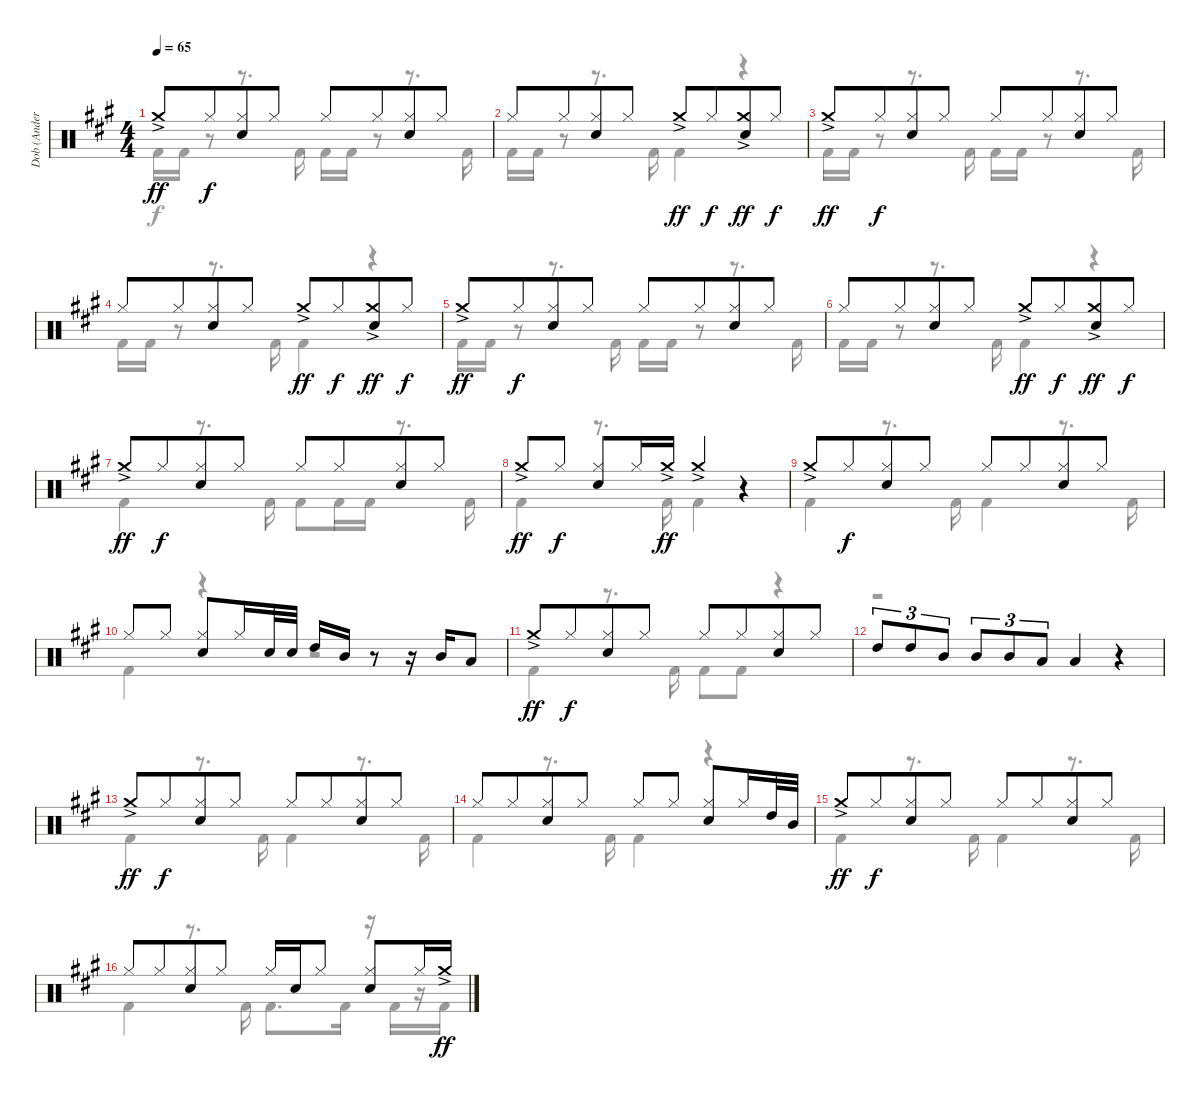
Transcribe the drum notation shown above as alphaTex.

\track ("Dob (Anders Johansson)" "Dob (Ander") {instrument percussion}
\staff {score}
\articulation defaults
\voice
\ts (4 4)
\tempo 65
\clef neutral
\ks a "Crash medium (hit)"{ac}.8{dy ff} "Hi-Hat (closed)".8{dy f beam merge}
("Hi-Hat (closed)" "Electric Snare (hit)").8 "Hi-Hat (closed)".8 "Hi-Hat (closed)".8 "Hi-Hat (closed)".8{beam merge} ("Hi-Hat (closed)" "Electric Snare (hit)").8 "Hi-Hat (closed)".8 |
"Hi-Hat (closed)".8 "Hi-Hat (closed)".8{beam merge} ("Hi-Hat (closed)" "Electric Snare (hit)").8 "Hi-Hat (closed)".8 "Crash medium (hit)"{ac}.8{dy ff} "Hi-Hat (closed)".8{dy f beam merge} ("Crash medium (hit)"{ac} "Electric Snare (hit)").8{dy ff} "Hi-Hat (closed)".8{dy f} |
"Crash medium (hit)"{ac}.8{dy ff} "Hi-Hat (closed)".8{dy f beam merge} ("Hi-Hat (closed)" "Electric Snare (hit)").8 "Hi-Hat (closed)".8 "Hi-Hat (closed)".8 "Hi-Hat (closed)".8{beam merge} ("Hi-Hat (closed)" "Electric Snare (hit)").8 "Hi-Hat (closed)".8 |
"Hi-Hat (closed)".8 "Hi-Hat (closed)".8{beam merge} ("Hi-Hat (closed)" "Electric Snare (hit)").8 "Hi-Hat (closed)".8 "Crash medium (hit)"{ac}.8{dy ff} "Hi-Hat (closed)".8{dy f beam merge} ("Crash medium (hit)"{ac} "Electric Snare (hit)").8{dy ff} "Hi-Hat (closed)".8{dy f} |
"Crash medium (hit)"{ac}.8{dy ff} "Hi-Hat (closed)".8{dy f beam merge} ("Hi-Hat (closed)" "Electric Snare (hit)").8 "Hi-Hat (closed)".8 "Hi-Hat (closed)".8 "Hi-Hat (closed)".8{beam merge} ("Hi-Hat (closed)" "Electric Snare (hit)").8 "Hi-Hat (closed)".8 |
"Hi-Hat (closed)".8 "Hi-Hat (closed)".8{beam merge} ("Hi-Hat (closed)" "Electric Snare (hit)").8 "Hi-Hat (closed)".8 "Crash medium (hit)"{ac}.8{dy ff} "Hi-Hat (closed)".8{dy f beam merge} ("Crash medium (hit)"{ac} "Electric Snare (hit)").8{dy ff} "Hi-Hat (closed)".8{dy f} |
"Crash medium (hit)"{ac}.8{dy ff} "Hi-Hat (closed)".8{dy f beam merge} ("Hi-Hat (closed)" "Electric Snare (hit)").8 "Hi-Hat (closed)".8 "Hi-Hat (closed)".8 "Hi-Hat (closed)".8{beam merge} ("Hi-Hat (closed)" "Electric Snare (hit)").8 "Hi-Hat (closed)".8 |
"Crash medium (hit)"{ac}.8{dy ff} "Hi-Hat (closed)".8{dy f beam split} ("Hi-Hat (closed)" "Electric Snare (hit)").8 "Hi-Hat (closed)".16 "Crash medium (hit)"{ac}.16{dy ff} "Crash medium (hit)"{ac}.4 r.4 |
"Crash medium (hit)"{ac}.8 "Hi-Hat (closed)".8{dy f beam merge} ("Hi-Hat (closed)" "Electric Snare (hit)").8 "Hi-Hat (closed)".8 "Hi-Hat (closed)".8 "Hi-Hat (closed)".8{beam merge} ("Hi-Hat (closed)" "Electric Snare (hit)").8 "Hi-Hat (closed)".8 |
"Hi-Hat (closed)".8 "Hi-Hat (closed)".8{beam split} ("Hi-Hat (closed)" "Electric Snare (hit)").8 "Hi-Hat (closed)".16 "Electric Snare (hit)".32 "Electric Snare (hit)".32 "High Tom (hit)".16 "Mid Tom (hit)".16 r.8 r.16 "Mid Tom (hit)".16 "Low Tom (hit)".8 |
"Crash medium (hit)"{ac}.8{dy ff} "Hi-Hat (closed)".8{dy f beam merge} ("Hi-Hat (closed)" "Electric Snare (hit)").8 "Hi-Hat (closed)".8 "Hi-Hat (closed)".8 "Hi-Hat (closed)".8{beam merge} ("Hi-Hat (closed)" "Electric Snare (hit)").8 "Hi-Hat (closed)".8 |
"High Tom (hit)".8{tu (3 2)} "High Tom (hit)".8{tu (3 2)} "Mid Tom (hit)".8{tu (3 2)} "Mid Tom (hit)".8{tu (3 2)} "Mid Tom (hit)".8{tu (3 2)} "Low Tom (hit)".8{tu (3 2)} "Low Tom (hit)".4 r.4 |
"Crash medium (hit)"{ac}.8{dy ff} "Hi-Hat (closed)".8{dy f beam merge} ("Hi-Hat (closed)" "Electric Snare (hit)").8 "Hi-Hat (closed)".8 "Hi-Hat (closed)".8 "Hi-Hat (closed)".8{beam merge} ("Hi-Hat (closed)" "Electric Snare (hit)").8 "Hi-Hat (closed)".8 |
"Hi-Hat (closed)".8 "Hi-Hat (closed)".8{beam merge} ("Hi-Hat (closed)" "Electric Snare (hit)").8 "Hi-Hat (closed)".8 "Hi-Hat (closed)".8 "Hi-Hat (closed)".8{beam split} ("Hi-Hat (closed)" "Electric Snare (hit)").8 "Hi-Hat (closed)".16 "High Tom (hit)".32 "Mid Tom (hit)".32 |
"Crash medium (hit)"{ac}.8{dy ff} "Hi-Hat (closed)".8{dy f beam merge} ("Hi-Hat (closed)" "Electric Snare (hit)").8 "Hi-Hat (closed)".8 "Hi-Hat (closed)".8 "Hi-Hat (closed)".8{beam merge} ("Hi-Hat (closed)" "Electric Snare (hit)").8 "Hi-Hat (closed)".8 |
"Hi-Hat (closed)".8 "Hi-Hat (closed)".8{beam merge} ("Hi-Hat (closed)" "Electric Snare (hit)").8 "Hi-Hat (closed)".8 "Hi-Hat (closed)".16 "Electric Snare (hit)".16 "Hi-Hat (closed)".8{beam split} ("Hi-Hat (closed)" "Electric Snare (hit)").8 "Hi-Hat (closed)".16 "Crash medium (hit)"{ac}.16{dy ff}
\voice
\clef neutral
\ottava regular
\simile none
\ks a "Kick (hit) 2".16{dy f} "Kick (hit) 2".16
r.8 r.8{d} "Kick (hit) 2".16 "Kick (hit) 2".16 "Kick (hit) 2".16 r.8 r.8{d} "Kick (hit) 2".16 |
"Kick (hit) 2".16 "Kick (hit) 2".16 r.8 r.8{d} "Kick (hit) 2".16 "Kick (hit) 2".4 r.4 |
"Kick (hit) 2".16 "Kick (hit) 2".16 r.8 r.8{d} "Kick (hit) 2".16 "Kick (hit) 2".16 "Kick (hit) 2".16 r.8 r.8{d} "Kick (hit) 2".16 |
"Kick (hit) 2".16 "Kick (hit) 2".16 r.8 r.8{d} "Kick (hit) 2".16 "Kick (hit) 2".4 r.4 |
"Kick (hit) 2".16 "Kick (hit) 2".16 r.8 r.8{d} "Kick (hit) 2".16 "Kick (hit) 2".16 "Kick (hit) 2".16 r.8 r.8{d} "Kick (hit) 2".16 |
"Kick (hit) 2".16 "Kick (hit) 2".16 r.8 r.8{d} "Kick (hit) 2".16 "Kick (hit) 2".4 r.4 |
"Kick (hit) 2".4 r.8{d} "Kick (hit) 2".16 "Kick (hit) 2".8 "Kick (hit) 2".16 "Kick (hit) 2".16 r.8{d} "Kick (hit) 2".16 |
"Kick (hit) 2".4 r.8{d} "Kick (hit) 2".16 "Kick (hit) 2".4 r.4 |
"Kick (hit) 2".4 r.8{d} "Kick (hit) 2".16 "Kick (hit) 2".4 r.8{d} "Kick (hit) 2".16 |
"Kick (hit) 2".4 r.4 r.2 |
"Kick (hit) 2".4 r.8{d} "Kick (hit) 2".16 "Kick (hit) 2".8 "Kick (hit) 2".8 r.4 |
r.1 |
"Kick (hit) 2".4 r.8{d} "Kick (hit) 2".16 "Kick (hit) 2".4 r.8{d} "Kick (hit) 2".16 |
"Kick (hit) 2".4 r.8{d} "Kick (hit) 2".16 "Kick (hit) 2".4 r.4 |
"Kick (hit) 2".4 r.8{d} "Kick (hit) 2".16 "Kick (hit) 2".4 r.8{d} "Kick (hit) 2".16 |
"Kick (hit) 2".4 r.8{d} "Kick (hit) 2".16 "Kick (hit) 2".8{d} "Kick (hit) 2".16 r.16 "Kick (hit) 2".16 r.16 "Kick (hit) 2".16
